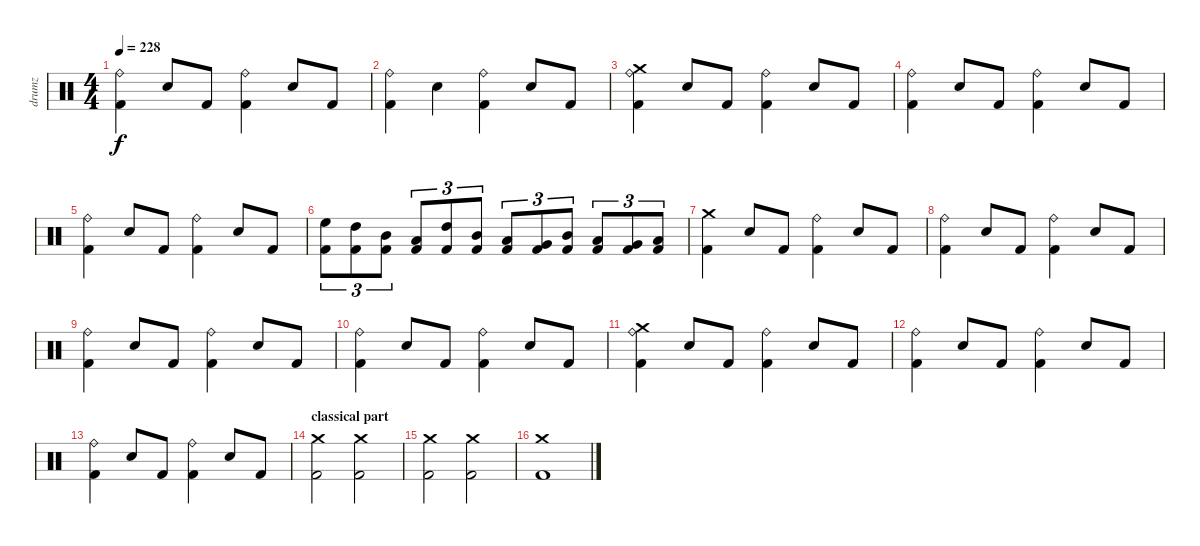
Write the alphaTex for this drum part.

\track ("drumz" "drumz") {instrument percussion}
\staff {score}
\articulation defaults
\ts (4 4)
\tempo 228
\clef neutral
\ks c
("Ride (bell)" "Kick (hit) 2").4{dy f} "Snare (hit) 2".8 "Kick (hit) 2".8 ("Ride (bell)" "Kick (hit) 2").4 "Snare (hit) 2".8 "Kick (hit) 2".8 |
("Ride (bell)" "Kick (hit) 2").4 "Snare (hit) 2".4 ("Ride (bell)" "Kick (hit) 2").4 "Snare (hit) 2".8 "Kick (hit) 2".8 |
("Crash medium (hit)" "Ride (bell)" "Kick (hit) 2").4 "Snare (hit) 2".8 "Kick (hit) 2".8 ("Ride (bell)" "Kick (hit) 2").4 "Snare (hit) 2".8 "Kick (hit) 2".8 |
("Ride (bell)" "Kick (hit) 2").4 "Snare (hit) 2".8 "Kick (hit) 2".8 ("Ride (bell)" "Kick (hit) 2").4 "Snare (hit) 2".8 "Kick (hit) 2".8 |
("Ride (bell)" "Kick (hit) 2").4 "Snare (hit) 2".8 "Kick (hit) 2".8 ("Ride (bell)" "Kick (hit) 2").4 "Snare (hit) 2".8 "Kick (hit) 2".8 |
("High Floor Tom (hit)" "Kick (hit) 2").8{tu (3 2)} ("High Tom (hit)" "Kick (hit) 2").8{tu (3 2)} ("Mid Tom (hit)" "Kick (hit) 2").8{tu (3 2)} ("Low Tom (hit)" "Kick (hit) 2").8{tu (3 2)} ("High Tom (hit)" "Kick (hit) 2").8{tu (3 2)} ("Mid Tom (hit)" "Kick (hit) 2").8{tu (3 2)} ("Low Tom (hit)" "Kick (hit) 2").8{tu (3 2)} ("Very Low Tom (hit)" "Kick (hit) 2").8{tu (3 2)} ("Mid Tom (hit)" "Kick (hit) 2").8{tu (3 2)} ("Low Tom (hit)" "Kick (hit) 2").8{tu (3 2)} ("Very Low Tom (hit)" "Kick (hit) 2").8{tu (3 2)} ("Low Floor Tom (hit)" "Kick (hit) 2").8{tu (3 2)} |
("Crash medium (hit)" "Kick (hit) 2").4 "Snare (hit) 2".8 "Kick (hit) 2".8 ("Ride (bell)" "Kick (hit) 2").4 "Snare (hit) 2".8 "Kick (hit) 2".8 |
("Ride (bell)" "Kick (hit) 2").4 "Snare (hit) 2".8 "Kick (hit) 2".8 ("Ride (bell)" "Kick (hit) 2").4 "Snare (hit) 2".8 "Kick (hit) 2".8 |
("Ride (bell)" "Kick (hit) 2").4 "Snare (hit) 2".8 "Kick (hit) 2".8 ("Ride (bell)" "Kick (hit) 2").4 "Snare (hit) 2".8 "Kick (hit) 2".8 |
("Ride (bell)" "Kick (hit) 2").4 "Snare (hit) 2".8 "Kick (hit) 2".8 ("Ride (bell)" "Kick (hit) 2").4 "Snare (hit) 2".8 "Kick (hit) 2".8 |
("Crash medium (hit)" "Ride (bell)" "Kick (hit) 2").4 "Snare (hit) 2".8 "Kick (hit) 2".8 ("Ride (bell)" "Kick (hit) 2").4 "Snare (hit) 2".8 "Kick (hit) 2".8 |
("Ride (bell)" "Kick (hit) 2").4 "Snare (hit) 2".8 "Kick (hit) 2".8 ("Ride (bell)" "Kick (hit) 2").4 "Snare (hit) 2".8 "Kick (hit) 2".8 |
("Ride (bell)" "Kick (hit) 2").4 "Snare (hit) 2".8 "Kick (hit) 2".8 ("Ride (bell)" "Kick (hit) 2").4 "Snare (hit) 2".8 "Kick (hit) 2".8 |
\section ("" "classical part")
("Crash medium (hit)" "Kick (hit) 2").2 ("Crash medium (hit)" "Kick (hit) 2").2 |
("Crash medium (hit)" "Kick (hit) 2").2 ("Crash medium (hit)" "Kick (hit) 2").2 |
("Crash medium (hit)" "Kick (hit) 2").1
